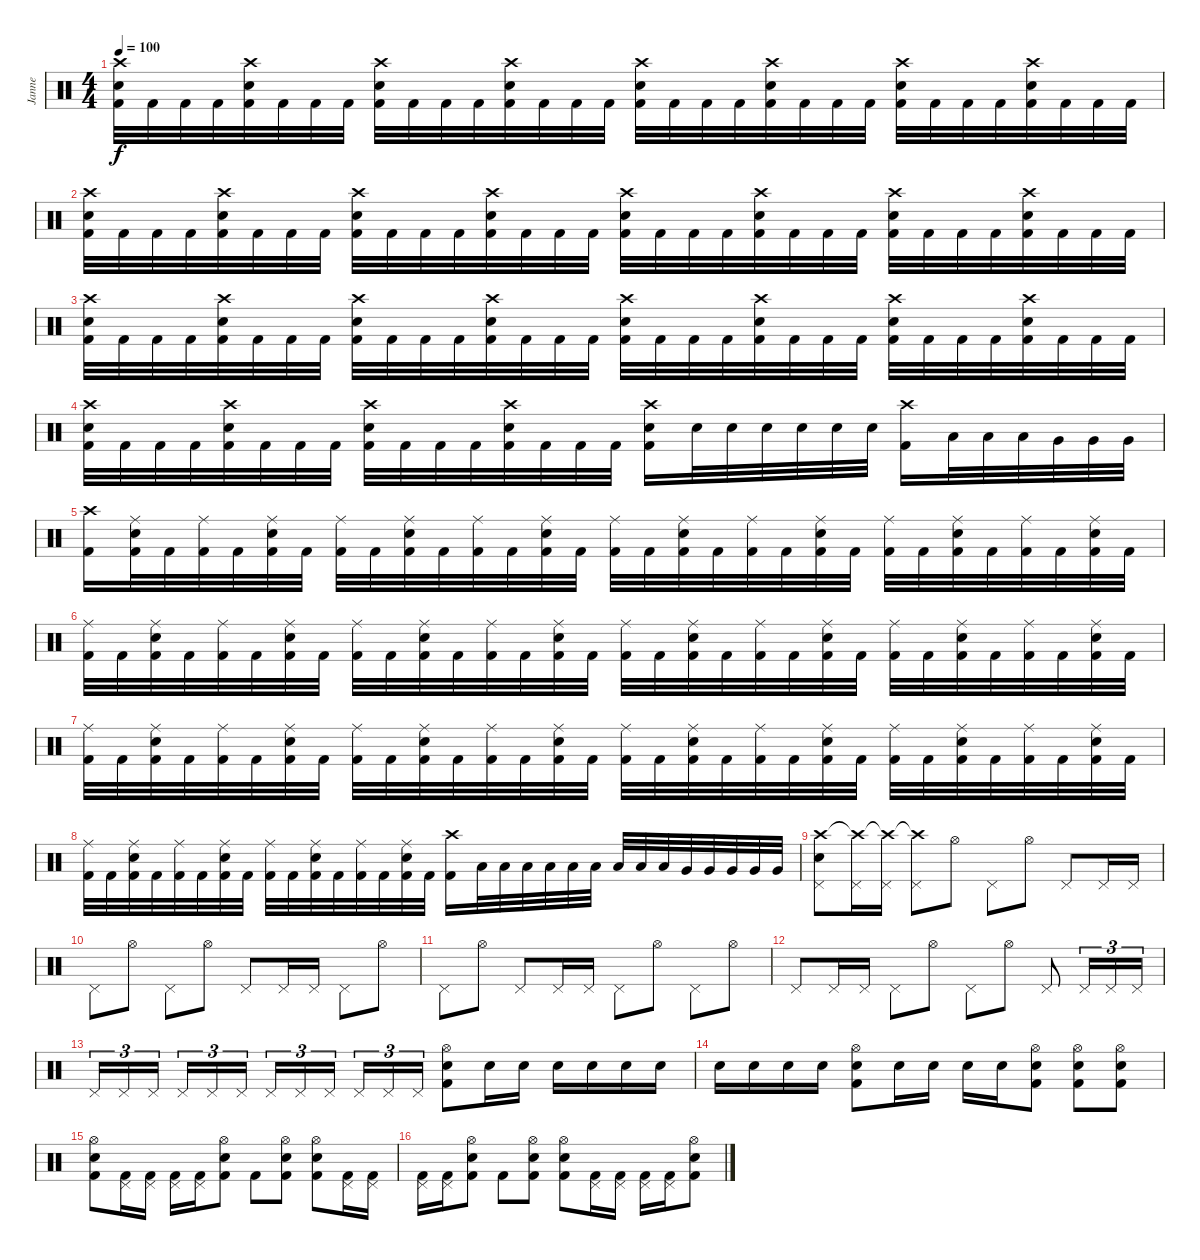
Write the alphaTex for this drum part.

\track ("Janne" "Janne") {instrument percussion}
\staff {score}
\articulation defaults
\ts (4 4)
\tempo 100
\clef neutral
\ks c
("Crash high (hit)" "Electric Snare (hit)" "Kick (hit) 2").32{dy f} "Kick (hit) 2".32 "Kick (hit) 2".32 "Kick (hit) 2".32 ("Crash high (hit)" "Electric Snare (hit)" "Kick (hit) 2").32 "Kick (hit) 2".32 "Kick (hit) 2".32 "Kick (hit) 2".32 ("Crash high (hit)" "Electric Snare (hit)" "Kick (hit) 2").32 "Kick (hit) 2".32 "Kick (hit) 2".32 "Kick (hit) 2".32 ("Crash high (hit)" "Electric Snare (hit)" "Kick (hit) 2").32 "Kick (hit) 2".32 "Kick (hit) 2".32 "Kick (hit) 2".32 ("Crash high (hit)" "Electric Snare (hit)" "Kick (hit) 2").32 "Kick (hit) 2".32 "Kick (hit) 2".32 "Kick (hit) 2".32 ("Crash high (hit)" "Electric Snare (hit)" "Kick (hit) 2").32 "Kick (hit) 2".32 "Kick (hit) 2".32 "Kick (hit) 2".32 ("Crash high (hit)" "Electric Snare (hit)" "Kick (hit) 2").32 "Kick (hit) 2".32 "Kick (hit) 2".32 "Kick (hit) 2".32 ("Crash high (hit)" "Electric Snare (hit)" "Kick (hit) 2").32 "Kick (hit) 2".32 "Kick (hit) 2".32 "Kick (hit) 2".32 |
("Crash high (hit)" "Electric Snare (hit)" "Kick (hit) 2").32 "Kick (hit) 2".32 "Kick (hit) 2".32 "Kick (hit) 2".32 ("Crash high (hit)" "Electric Snare (hit)" "Kick (hit) 2").32 "Kick (hit) 2".32 "Kick (hit) 2".32 "Kick (hit) 2".32 ("Crash high (hit)" "Electric Snare (hit)" "Kick (hit) 2").32 "Kick (hit) 2".32 "Kick (hit) 2".32 "Kick (hit) 2".32 ("Crash high (hit)" "Electric Snare (hit)" "Kick (hit) 2").32 "Kick (hit) 2".32 "Kick (hit) 2".32 "Kick (hit) 2".32 ("Crash high (hit)" "Electric Snare (hit)" "Kick (hit) 2").32 "Kick (hit) 2".32 "Kick (hit) 2".32 "Kick (hit) 2".32 ("Crash high (hit)" "Electric Snare (hit)" "Kick (hit) 2").32 "Kick (hit) 2".32 "Kick (hit) 2".32 "Kick (hit) 2".32 ("Crash high (hit)" "Electric Snare (hit)" "Kick (hit) 2").32 "Kick (hit) 2".32 "Kick (hit) 2".32 "Kick (hit) 2".32 ("Crash high (hit)" "Electric Snare (hit)" "Kick (hit) 2").32 "Kick (hit) 2".32 "Kick (hit) 2".32 "Kick (hit) 2".32 |
("Crash high (hit)" "Electric Snare (hit)" "Kick (hit) 2").32 "Kick (hit) 2".32 "Kick (hit) 2".32 "Kick (hit) 2".32 ("Crash high (hit)" "Electric Snare (hit)" "Kick (hit) 2").32 "Kick (hit) 2".32 "Kick (hit) 2".32 "Kick (hit) 2".32 ("Crash high (hit)" "Electric Snare (hit)" "Kick (hit) 2").32 "Kick (hit) 2".32 "Kick (hit) 2".32 "Kick (hit) 2".32 ("Crash high (hit)" "Electric Snare (hit)" "Kick (hit) 2").32 "Kick (hit) 2".32 "Kick (hit) 2".32 "Kick (hit) 2".32 ("Crash high (hit)" "Electric Snare (hit)" "Kick (hit) 2").32 "Kick (hit) 2".32 "Kick (hit) 2".32 "Kick (hit) 2".32 ("Crash high (hit)" "Electric Snare (hit)" "Kick (hit) 2").32 "Kick (hit) 2".32 "Kick (hit) 2".32 "Kick (hit) 2".32 ("Crash high (hit)" "Electric Snare (hit)" "Kick (hit) 2").32 "Kick (hit) 2".32 "Kick (hit) 2".32 "Kick (hit) 2".32 ("Crash high (hit)" "Electric Snare (hit)" "Kick (hit) 2").32 "Kick (hit) 2".32 "Kick (hit) 2".32 "Kick (hit) 2".32 |
("Crash high (hit)" "Electric Snare (hit)" "Kick (hit) 2").32 "Kick (hit) 2".32 "Kick (hit) 2".32 "Kick (hit) 2".32 ("Crash high (hit)" "Electric Snare (hit)" "Kick (hit) 2").32 "Kick (hit) 2".32 "Kick (hit) 2".32 "Kick (hit) 2".32 ("Crash high (hit)" "Electric Snare (hit)" "Kick (hit) 2").32 "Kick (hit) 2".32 "Kick (hit) 2".32 "Kick (hit) 2".32 ("Crash high (hit)" "Electric Snare (hit)" "Kick (hit) 2").32 "Kick (hit) 2".32 "Kick (hit) 2".32 "Kick (hit) 2".32 ("Crash high (hit)" "Electric Snare (hit)" "Kick (hit) 2").16 "Electric Snare (hit)".32 "Electric Snare (hit)".32 "Electric Snare (hit)".32 "Electric Snare (hit)".32 "Electric Snare (hit)".32 "Electric Snare (hit)".32 ("Crash high (hit)" "Kick (hit) 2").16 "Low Tom (hit)".32 "Low Tom (hit)".32 "Low Tom (hit)".32 "Very Low Tom (hit)".32 "Very Low Tom (hit)".32 "Very Low Tom (hit)".32 |
("Crash high (hit)" "Kick (hit) 2").16 ("Ride (middle)" "Electric Snare (hit)" "Kick (hit) 2").32 "Kick (hit) 2".32 ("Ride (middle)" "Kick (hit) 2").32 "Kick (hit) 2".32 ("Ride (middle)" "Electric Snare (hit)" "Kick (hit) 2").32 "Kick (hit) 2".32 ("Ride (middle)" "Kick (hit) 2").32 "Kick (hit) 2".32 ("Ride (middle)" "Electric Snare (hit)" "Kick (hit) 2").32 "Kick (hit) 2".32 ("Ride (middle)" "Kick (hit) 2").32 "Kick (hit) 2".32 ("Ride (middle)" "Electric Snare (hit)" "Kick (hit) 2").32 "Kick (hit) 2".32 ("Ride (middle)" "Kick (hit) 2").32 "Kick (hit) 2".32 ("Ride (middle)" "Electric Snare (hit)" "Kick (hit) 2").32 "Kick (hit) 2".32 ("Ride (middle)" "Kick (hit) 2").32 "Kick (hit) 2".32 ("Ride (middle)" "Electric Snare (hit)" "Kick (hit) 2").32 "Kick (hit) 2".32 ("Ride (middle)" "Kick (hit) 2").32 "Kick (hit) 2".32 ("Ride (middle)" "Electric Snare (hit)" "Kick (hit) 2").32 "Kick (hit) 2".32 ("Ride (middle)" "Kick (hit) 2").32 "Kick (hit) 2".32 ("Ride (middle)" "Electric Snare (hit)" "Kick (hit) 2").32 "Kick (hit) 2".32 |
("Ride (middle)" "Kick (hit) 2").32 "Kick (hit) 2".32 ("Ride (middle)" "Electric Snare (hit)" "Kick (hit) 2").32 "Kick (hit) 2".32 ("Ride (middle)" "Kick (hit) 2").32 "Kick (hit) 2".32 ("Ride (middle)" "Electric Snare (hit)" "Kick (hit) 2").32 "Kick (hit) 2".32 ("Ride (middle)" "Kick (hit) 2").32 "Kick (hit) 2".32 ("Ride (middle)" "Electric Snare (hit)" "Kick (hit) 2").32 "Kick (hit) 2".32 ("Ride (middle)" "Kick (hit) 2").32 "Kick (hit) 2".32 ("Ride (middle)" "Electric Snare (hit)" "Kick (hit) 2").32 "Kick (hit) 2".32 ("Ride (middle)" "Kick (hit) 2").32 "Kick (hit) 2".32 ("Ride (middle)" "Electric Snare (hit)" "Kick (hit) 2").32 "Kick (hit) 2".32 ("Ride (middle)" "Kick (hit) 2").32 "Kick (hit) 2".32 ("Ride (middle)" "Electric Snare (hit)" "Kick (hit) 2").32 "Kick (hit) 2".32 ("Ride (middle)" "Kick (hit) 2").32 "Kick (hit) 2".32 ("Ride (middle)" "Electric Snare (hit)" "Kick (hit) 2").32 "Kick (hit) 2".32 ("Ride (middle)" "Kick (hit) 2").32 "Kick (hit) 2".32 ("Ride (middle)" "Electric Snare (hit)" "Kick (hit) 2").32 "Kick (hit) 2".32 |
("Ride (middle)" "Kick (hit) 2").32 "Kick (hit) 2".32 ("Ride (middle)" "Electric Snare (hit)" "Kick (hit) 2").32 "Kick (hit) 2".32 ("Ride (middle)" "Kick (hit) 2").32 "Kick (hit) 2".32 ("Ride (middle)" "Electric Snare (hit)" "Kick (hit) 2").32 "Kick (hit) 2".32 ("Ride (middle)" "Kick (hit) 2").32 "Kick (hit) 2".32 ("Ride (middle)" "Electric Snare (hit)" "Kick (hit) 2").32 "Kick (hit) 2".32 ("Ride (middle)" "Kick (hit) 2").32 "Kick (hit) 2".32 ("Ride (middle)" "Electric Snare (hit)" "Kick (hit) 2").32 "Kick (hit) 2".32 ("Ride (middle)" "Kick (hit) 2").32 "Kick (hit) 2".32 ("Ride (middle)" "Electric Snare (hit)" "Kick (hit) 2").32 "Kick (hit) 2".32 ("Ride (middle)" "Kick (hit) 2").32 "Kick (hit) 2".32 ("Ride (middle)" "Electric Snare (hit)" "Kick (hit) 2").32 "Kick (hit) 2".32 ("Ride (middle)" "Kick (hit) 2").32 "Kick (hit) 2".32 ("Ride (middle)" "Electric Snare (hit)" "Kick (hit) 2").32 "Kick (hit) 2".32 ("Ride (middle)" "Kick (hit) 2").32 "Kick (hit) 2".32 ("Ride (middle)" "Electric Snare (hit)" "Kick (hit) 2").32 "Kick (hit) 2".32 |
("Ride (middle)" "Kick (hit) 2").32 "Kick (hit) 2".32 ("Ride (middle)" "Electric Snare (hit)" "Kick (hit) 2").32 "Kick (hit) 2".32 ("Ride (middle)" "Kick (hit) 2").32 "Kick (hit) 2".32 ("Ride (middle)" "Electric Snare (hit)" "Kick (hit) 2").32 "Kick (hit) 2".32 ("Ride (middle)" "Kick (hit) 2").32 "Kick (hit) 2".32 ("Ride (middle)" "Electric Snare (hit)" "Kick (hit) 2").32 "Kick (hit) 2".32 ("Ride (middle)" "Kick (hit) 2").32 "Kick (hit) 2".32 ("Ride (middle)" "Electric Snare (hit)" "Kick (hit) 2").32 "Kick (hit) 2".32 ("Crash high (hit)" "Kick (hit) 2").16 "Low Tom (hit)".32 "Low Tom (hit)".32 "Low Tom (hit)".32 "Low Tom (hit)".32 "Low Tom (hit)".32 "Low Tom (hit)".32 "Low Tom (hit)".32 "Low Tom (hit)".32 "Low Tom (hit)".32 "Very Low Tom (hit)".32 "Very Low Tom (hit)".32 "Very Low Tom (hit)".32 "Very Low Tom (hit)".32 "Very Low Tom (hit)".32 |
("Crash high (hit)" "Electric Snare (hit)" "Pedal Hi-Hat (hit)").8 ("Crash high (hit)"{t} "Pedal Hi-Hat (hit)").16 ("Crash high (hit)"{t} "Pedal Hi-Hat (hit)").16 ("Crash high (hit)"{t} "Pedal Hi-Hat (hit)").8 "Hi-Hat (open)".8 "Pedal Hi-Hat (hit)".8 "Hi-Hat (open)".8 "Pedal Hi-Hat (hit)".8 "Pedal Hi-Hat (hit)".16 "Pedal Hi-Hat (hit)".16 |
"Pedal Hi-Hat (hit)".8 "Hi-Hat (open)".8 "Pedal Hi-Hat (hit)".8 "Hi-Hat (open)".8 "Pedal Hi-Hat (hit)".8 "Pedal Hi-Hat (hit)".16 "Pedal Hi-Hat (hit)".16 "Pedal Hi-Hat (hit)".8 "Hi-Hat (open)".8 |
"Pedal Hi-Hat (hit)".8 "Hi-Hat (open)".8 "Pedal Hi-Hat (hit)".8 "Pedal Hi-Hat (hit)".16 "Pedal Hi-Hat (hit)".16 "Pedal Hi-Hat (hit)".8 "Hi-Hat (open)".8 "Pedal Hi-Hat (hit)".8 "Hi-Hat (open)".8 |
"Pedal Hi-Hat (hit)".8 "Pedal Hi-Hat (hit)".16 "Pedal Hi-Hat (hit)".16 "Pedal Hi-Hat (hit)".8 "Hi-Hat (open)".8 "Pedal Hi-Hat (hit)".8 "Hi-Hat (open)".8 "Pedal Hi-Hat (hit)".8 "Pedal Hi-Hat (hit)".16{tu (3 2)} "Pedal Hi-Hat (hit)".16{tu (3 2)} "Pedal Hi-Hat (hit)".16{tu (3 2)} |
"Pedal Hi-Hat (hit)".16{tu (3 2)} "Pedal Hi-Hat (hit)".16{tu (3 2)} "Pedal Hi-Hat (hit)".16{tu (3 2) beam splitsecondary} "Pedal Hi-Hat (hit)".16{tu (3 2)} "Pedal Hi-Hat (hit)".16{tu (3 2)} "Pedal Hi-Hat (hit)".16{tu (3 2)} "Pedal Hi-Hat (hit)".16{tu (3 2)} "Pedal Hi-Hat (hit)".16{tu (3 2)} "Pedal Hi-Hat (hit)".16{tu (3 2) beam splitsecondary} "Pedal Hi-Hat (hit)".16{tu (3 2)} "Pedal Hi-Hat (hit)".16{tu (3 2)} "Pedal Hi-Hat (hit)".16{tu (3 2)} ("Hi-Hat (open)" "Electric Snare (hit)" "Kick (hit) 2").8 "Electric Snare (hit)".16 "Electric Snare (hit)".16 "Electric Snare (hit)".16 "Electric Snare (hit)".16 "Electric Snare (hit)".16 "Electric Snare (hit)".16 |
"Electric Snare (hit)".16 "Electric Snare (hit)".16 "Electric Snare (hit)".16 "Electric Snare (hit)".16 ("Hi-Hat (open)" "Electric Snare (hit)" "Kick (hit) 2").8 "Electric Snare (hit)".16 "Electric Snare (hit)".16 "Electric Snare (hit)".16 "Electric Snare (hit)".16 ("Hi-Hat (open)" "Electric Snare (hit)" "Kick (hit) 2").8 ("Hi-Hat (open)" "Electric Snare (hit)" "Kick (hit) 2").8 ("Hi-Hat (open)" "Electric Snare (hit)" "Kick (hit) 2").8 |
("Hi-Hat (open)" "Electric Snare (hit)" "Kick (hit) 2").8 ("Pedal Hi-Hat (hit)" "Kick (hit) 2").16 ("Pedal Hi-Hat (hit)" "Kick (hit) 2").16 ("Pedal Hi-Hat (hit)" "Kick (hit) 2").16 ("Pedal Hi-Hat (hit)" "Kick (hit) 2").16 ("Hi-Hat (open)" "Electric Snare (hit)" "Kick (hit) 2").8 "Kick (hit) 2".8 ("Hi-Hat (open)" "Electric Snare (hit)" "Kick (hit) 2").8 ("Hi-Hat (open)" "Electric Snare (hit)" "Kick (hit) 2").8 ("Pedal Hi-Hat (hit)" "Kick (hit) 2").16 ("Pedal Hi-Hat (hit)" "Kick (hit) 2").16 |
("Pedal Hi-Hat (hit)" "Kick (hit) 2").16 ("Pedal Hi-Hat (hit)" "Kick (hit) 2").16 ("Hi-Hat (open)" "Electric Snare (hit)" "Kick (hit) 2").8 "Kick (hit) 2".8 ("Hi-Hat (open)" "Electric Snare (hit)" "Kick (hit) 2").8 ("Hi-Hat (open)" "Electric Snare (hit)" "Kick (hit) 2").8 ("Pedal Hi-Hat (hit)" "Kick (hit) 2").16 ("Pedal Hi-Hat (hit)" "Kick (hit) 2").16 ("Pedal Hi-Hat (hit)" "Kick (hit) 2").16 ("Pedal Hi-Hat (hit)" "Kick (hit) 2").16 ("Hi-Hat (open)" "Electric Snare (hit)" "Kick (hit) 2").8
